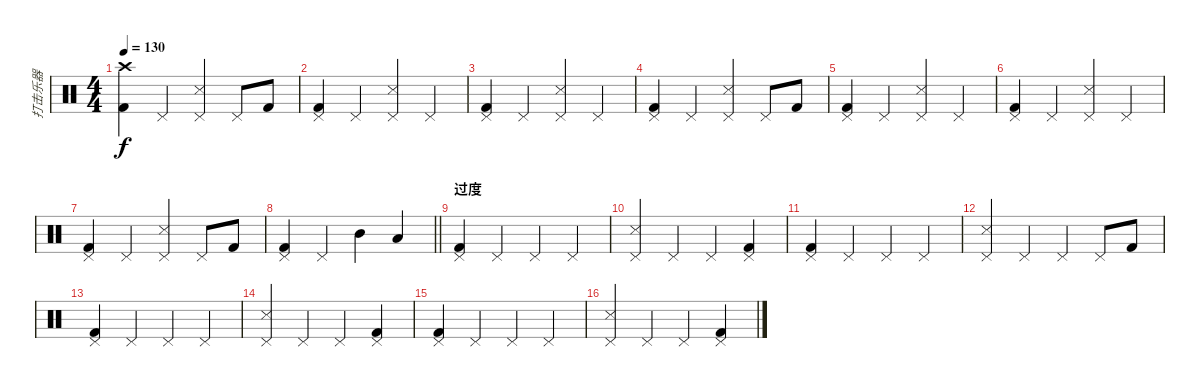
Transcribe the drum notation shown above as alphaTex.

\track ("打击乐器" "打击乐器") {instrument percussion}
\staff {score}
\articulation defaults
\ts (4 4)
\tempo 130
\clef neutral
\ks c
("Crash high (hit)" "Kick (hit) 2").4{dy f} "Pedal Hi-Hat (hit)".4 ("Pedal Hi-Hat (hit)" "Metronome (hit)").4 "Pedal Hi-Hat (hit)".8 "Kick (hit) 2".8 |
("Pedal Hi-Hat (hit)" "Kick (hit) 2").4 "Pedal Hi-Hat (hit)".4 ("Pedal Hi-Hat (hit)" "Metronome (hit)").4 "Pedal Hi-Hat (hit)".4 |
("Pedal Hi-Hat (hit)" "Kick (hit) 2").4 "Pedal Hi-Hat (hit)".4 ("Pedal Hi-Hat (hit)" "Metronome (hit)").4 "Pedal Hi-Hat (hit)".4 |
("Pedal Hi-Hat (hit)" "Kick (hit) 2").4 "Pedal Hi-Hat (hit)".4 ("Pedal Hi-Hat (hit)" "Metronome (hit)").4 "Pedal Hi-Hat (hit)".8 "Kick (hit) 2".8 |
("Pedal Hi-Hat (hit)" "Kick (hit) 2").4 "Pedal Hi-Hat (hit)".4 ("Pedal Hi-Hat (hit)" "Metronome (hit)").4 "Pedal Hi-Hat (hit)".4 |
("Pedal Hi-Hat (hit)" "Kick (hit) 2").4 "Pedal Hi-Hat (hit)".4 ("Pedal Hi-Hat (hit)" "Metronome (hit)").4 "Pedal Hi-Hat (hit)".4 |
("Pedal Hi-Hat (hit)" "Kick (hit) 2").4 "Pedal Hi-Hat (hit)".4 ("Pedal Hi-Hat (hit)" "Metronome (hit)").4 "Pedal Hi-Hat (hit)".8 "Kick (hit) 2".8 |
\barLineRight lightlight
("Pedal Hi-Hat (hit)" "Kick (hit) 2").4 "Pedal Hi-Hat (hit)".4 "Mid Tom (hit)".4 "Low Tom (hit)".4 |
\section ("" "过度")
("Pedal Hi-Hat (hit)" "Kick (hit) 2").4 "Pedal Hi-Hat (hit)".4 "Pedal Hi-Hat (hit)".4 "Pedal Hi-Hat (hit)".4 |
("Pedal Hi-Hat (hit)" "Metronome (hit)").4 "Pedal Hi-Hat (hit)".4 "Pedal Hi-Hat (hit)".4 ("Pedal Hi-Hat (hit)" "Kick (hit) 2").4 |
("Pedal Hi-Hat (hit)" "Kick (hit) 2").4 "Pedal Hi-Hat (hit)".4 "Pedal Hi-Hat (hit)".4 "Pedal Hi-Hat (hit)".4 |
("Pedal Hi-Hat (hit)" "Metronome (hit)").4 "Pedal Hi-Hat (hit)".4 "Pedal Hi-Hat (hit)".4 "Pedal Hi-Hat (hit)".8 "Kick (hit) 2".8 |
("Pedal Hi-Hat (hit)" "Kick (hit) 2").4 "Pedal Hi-Hat (hit)".4 "Pedal Hi-Hat (hit)".4 "Pedal Hi-Hat (hit)".4 |
("Pedal Hi-Hat (hit)" "Metronome (hit)").4 "Pedal Hi-Hat (hit)".4 "Pedal Hi-Hat (hit)".4 ("Pedal Hi-Hat (hit)" "Kick (hit) 2").4 |
("Pedal Hi-Hat (hit)" "Kick (hit) 2").4 "Pedal Hi-Hat (hit)".4 "Pedal Hi-Hat (hit)".4 "Pedal Hi-Hat (hit)".4 |
("Pedal Hi-Hat (hit)" "Metronome (hit)").4 "Pedal Hi-Hat (hit)".4 "Pedal Hi-Hat (hit)".4 ("Pedal Hi-Hat (hit)" "Kick (hit) 2").4
